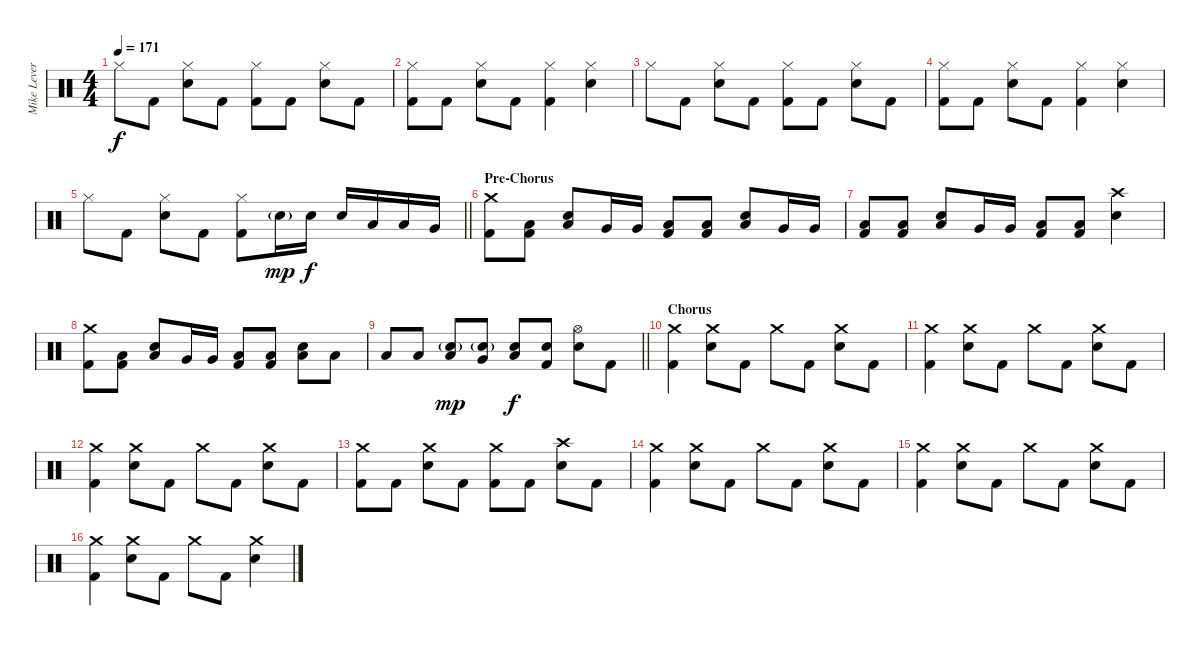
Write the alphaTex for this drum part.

\track ("Mike Leverence - Drums" "Mike Lever") {instrument percussion}
\staff {score}
\articulation defaults
\ts (4 4)
\tempo 171
\clef neutral
\ks c "Hi-Hat (closed)".8{dy f} "Kick (hit) 2".8
("Hi-Hat (closed)" "Electric Snare (hit)").8 "Kick (hit) 2".8 ("Hi-Hat (closed)" "Kick (hit) 2").8 "Kick (hit) 2".8 ("Hi-Hat (closed)" "Electric Snare (hit)").8 "Kick (hit) 2".8 |
("Hi-Hat (closed)" "Kick (hit) 2").8 "Kick (hit) 2".8 ("Hi-Hat (closed)" "Electric Snare (hit)").8 "Kick (hit) 2".8 ("Hi-Hat (closed)" "Kick (hit) 2").4 ("Hi-Hat (closed)" "Electric Snare (hit)").4 |
"Hi-Hat (closed)".8 "Kick (hit) 2".8 ("Hi-Hat (closed)" "Electric Snare (hit)").8 "Kick (hit) 2".8 ("Hi-Hat (closed)" "Kick (hit) 2").8 "Kick (hit) 2".8 ("Hi-Hat (closed)" "Electric Snare (hit)").8 "Kick (hit) 2".8 |
("Hi-Hat (closed)" "Kick (hit) 2").8 "Kick (hit) 2".8 ("Hi-Hat (closed)" "Electric Snare (hit)").8 "Kick (hit) 2".8 ("Hi-Hat (closed)" "Kick (hit) 2").4 ("Hi-Hat (closed)" "Electric Snare (hit)").4 |
\barLineRight lightlight "Hi-Hat (closed)".8 "Kick (hit) 2".8
("Hi-Hat (closed)" "Electric Snare (hit)").8 "Kick (hit) 2".8 ("Hi-Hat (closed)" "Kick (hit) 2").8 "Electric Snare (hit)"{g}.16{dy mp} "Electric Snare (hit)".16{dy f} "Electric Snare (hit)".16 "Low Tom (hit)".16 "Low Tom (hit)".16 "Very Low Tom (hit)".16 |
\section ("" "Pre-Chorus")
("Crash medium (hit)" "Kick (hit) 2").8 ("Low Floor Tom (hit)" "Kick (hit) 2").8 ("Low Floor Tom (hit)" "Electric Snare (hit)").8 "Very Low Tom (hit)".16 "Very Low Tom (hit)".16 ("Low Floor Tom (hit)" "Kick (hit) 2").8 ("Low Floor Tom (hit)" "Kick (hit) 2").8 ("Low Floor Tom (hit)" "Electric Snare (hit)").8 "Very Low Tom (hit)".16 "Very Low Tom (hit)".16 |
("Low Floor Tom (hit)" "Kick (hit) 2").8 ("Low Floor Tom (hit)" "Kick (hit) 2").8 ("Low Floor Tom (hit)" "Electric Snare (hit)").8 "Very Low Tom (hit)".16 "Very Low Tom (hit)".16 ("Low Floor Tom (hit)" "Kick (hit) 2").8 ("Low Floor Tom (hit)" "Kick (hit) 2").8 ("Crash high (hit)" "Electric Snare (hit)").4 |
("Crash medium (hit)" "Kick (hit) 2").8 ("Low Floor Tom (hit)" "Kick (hit) 2").8 ("Low Floor Tom (hit)" "Electric Snare (hit)").8 "Very Low Tom (hit)".16 "Very Low Tom (hit)".16 ("Low Floor Tom (hit)" "Kick (hit) 2").8 ("Low Floor Tom (hit)" "Kick (hit) 2").8 ("Low Floor Tom (hit)" "Electric Snare (hit)").8 "Low Floor Tom (hit)".8 |
\barLineRight lightlight "Low Floor Tom (hit)".8 "Low Floor Tom (hit)".8
("Electric Snare (hit)"{g} "Low Floor Tom (hit)").8{dy mp} ("Electric Snare (hit)"{g} "Very Low Tom (hit)").8 ("Electric Snare (hit)" "Low Tom (hit)").8{dy f} ("Electric Snare (hit)" "Kick (hit) 2").8 ("Hi-Hat (open)" "Electric Snare (hit)").8 "Kick (hit) 2".8 |
\section ("" "Chorus")
("Crash medium (hit)" "Kick (hit) 2").4 ("Crash medium (hit)" "Electric Snare (hit)").8 "Kick (hit) 2".8 "Crash medium (hit)".8 "Kick (hit) 2".8 ("Crash medium (hit)" "Electric Snare (hit)").8 "Kick (hit) 2".8 |
("Crash medium (hit)" "Kick (hit) 2").4 ("Crash medium (hit)" "Electric Snare (hit)").8 "Kick (hit) 2".8 "Crash medium (hit)".8 "Kick (hit) 2".8 ("Crash medium (hit)" "Electric Snare (hit)").8 "Kick (hit) 2".8 |
("Crash medium (hit)" "Kick (hit) 2").4 ("Crash medium (hit)" "Electric Snare (hit)").8 "Kick (hit) 2".8 "Crash medium (hit)".8 "Kick (hit) 2".8 ("Crash medium (hit)" "Electric Snare (hit)").8 "Kick (hit) 2".8 |
("Crash medium (hit)" "Kick (hit) 2").8 "Kick (hit) 2".8 ("Crash medium (hit)" "Electric Snare (hit)").8 "Kick (hit) 2".8 ("Crash medium (hit)" "Kick (hit) 2").8 "Kick (hit) 2".8 ("Crash high (hit)" "Electric Snare (hit)").8 "Kick (hit) 2".8 |
("Crash medium (hit)" "Kick (hit) 2").4 ("Crash medium (hit)" "Electric Snare (hit)").8 "Kick (hit) 2".8 "Crash medium (hit)".8 "Kick (hit) 2".8 ("Crash medium (hit)" "Electric Snare (hit)").8 "Kick (hit) 2".8 |
("Crash medium (hit)" "Kick (hit) 2").4 ("Crash medium (hit)" "Electric Snare (hit)").8 "Kick (hit) 2".8 "Crash medium (hit)".8 "Kick (hit) 2".8 ("Crash medium (hit)" "Electric Snare (hit)").8 "Kick (hit) 2".8 |
("Crash medium (hit)" "Kick (hit) 2").4 ("Crash medium (hit)" "Electric Snare (hit)").8 "Kick (hit) 2".8 "Crash medium (hit)".8 "Kick (hit) 2".8 ("Crash medium (hit)" "Electric Snare (hit)").4
